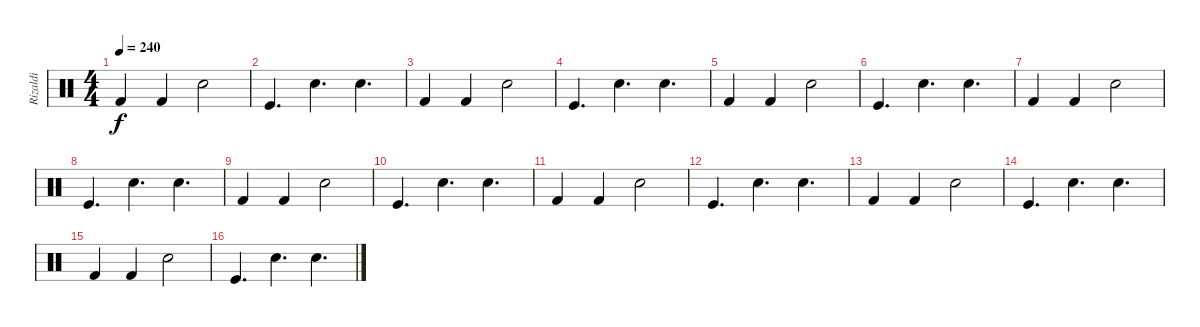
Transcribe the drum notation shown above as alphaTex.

\track ("Rizaldi" "Rizaldi") {instrument percussion}
\staff {score}
\articulation defaults
\ts (4 4)
\tempo 240
\clef neutral
\ks c "Kick (hit) 2".4{dy f} "Kick (hit) 2".4 "Snare (hit) 2".2
|
"Kick (hit)".4{d} "Electric Snare (hit)".4{d} "Electric Snare (hit)".4{d} |
"Kick (hit) 2".4 "Kick (hit) 2".4 "Snare (hit) 2".2 |
"Kick (hit)".4{d} "Electric Snare (hit)".4{d} "Electric Snare (hit)".4{d} |
"Kick (hit) 2".4 "Kick (hit) 2".4 "Snare (hit) 2".2 |
"Kick (hit)".4{d} "Electric Snare (hit)".4{d} "Electric Snare (hit)".4{d} |
"Kick (hit) 2".4 "Kick (hit) 2".4 "Snare (hit) 2".2 |
"Kick (hit)".4{d} "Electric Snare (hit)".4{d} "Electric Snare (hit)".4{d} |
"Kick (hit) 2".4 "Kick (hit) 2".4 "Snare (hit) 2".2 |
"Kick (hit)".4{d} "Electric Snare (hit)".4{d} "Electric Snare (hit)".4{d} |
"Kick (hit) 2".4 "Kick (hit) 2".4 "Snare (hit) 2".2 |
"Kick (hit)".4{d} "Electric Snare (hit)".4{d} "Electric Snare (hit)".4{d} |
"Kick (hit) 2".4 "Kick (hit) 2".4 "Snare (hit) 2".2 |
"Kick (hit)".4{d} "Electric Snare (hit)".4{d} "Electric Snare (hit)".4{d} |
"Kick (hit) 2".4 "Kick (hit) 2".4 "Snare (hit) 2".2 |
"Kick (hit)".4{d} "Electric Snare (hit)".4{d} "Electric Snare (hit)".4{d}
